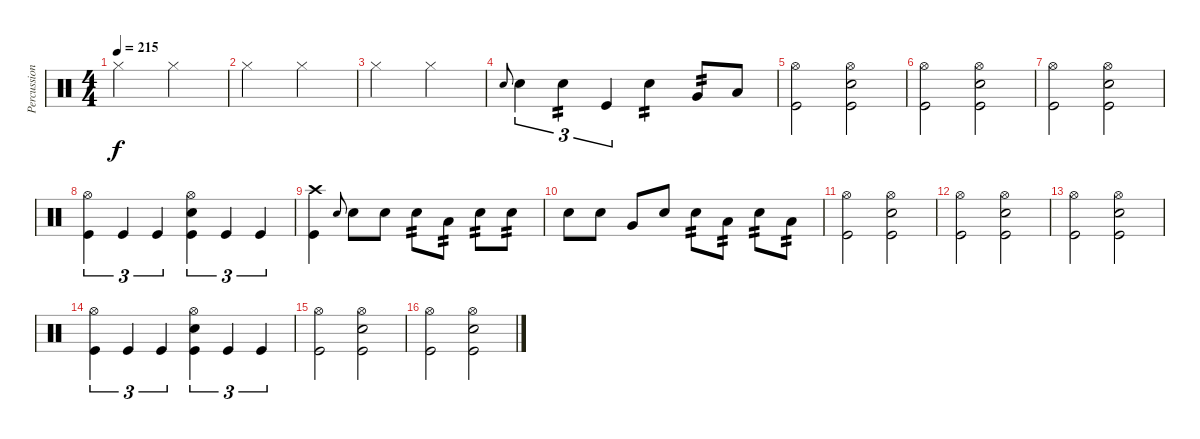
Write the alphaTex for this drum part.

\track ("Percussion" "Percussion") {instrument percussion}
\staff {score}
\articulation defaults
\ts (4 4)
\tempo 215
\clef neutral
\ks c "Hi-Hat (closed)".2{dy f} "Hi-Hat (closed)".2
|
"Hi-Hat (closed)".2 "Hi-Hat (closed)".2 |
"Hi-Hat (closed)".2 "Hi-Hat (closed)".2 |
"Electric Snare (hit)".8{gr onbeat} "Electric Snare (hit)".4{tu (3 2)} "Electric Snare (hit)".4{tu (3 2) tp 2} "Kick (hit)".4{tu (3 2)} "Electric Snare (hit)".4{tp 2} "Very Low Tom (hit)".8{tp 2} "Low Floor Tom (hit)".8 |
("Hi-Hat (open)" "Kick (hit)").2 ("Hi-Hat (open)" "Electric Snare (hit)" "Kick (hit)").2 |
("Hi-Hat (open)" "Kick (hit)").2 ("Hi-Hat (open)" "Electric Snare (hit)" "Kick (hit)").2 |
("Hi-Hat (open)" "Kick (hit)").2 ("Hi-Hat (open)" "Electric Snare (hit)" "Kick (hit)").2 |
("Hi-Hat (open)" "Kick (hit)").4{tu (3 2)} "Kick (hit)".4{tu (3 2)} "Kick (hit)".4{tu (3 2)} ("Hi-Hat (open)" "Electric Snare (hit)" "Kick (hit)").4{tu (3 2)} "Kick (hit)".4{tu (3 2)} "Kick (hit)".4{tu (3 2)} |
("Crash high (hit)" "Kick (hit)").4 "Electric Snare (hit)".8{gr onbeat} "Electric Snare (hit)".8 "Electric Snare (hit)".8 "Electric Snare (hit)".8{tp 2} "Low Tom (hit)".8{tp 2} "Electric Snare (hit)".8{tp 2} "Electric Snare (hit)".8{tp 2} |
"Electric Snare (hit)".8 "Electric Snare (hit)".8 "Very Low Tom (hit)".8 "Electric Snare (hit)".8 "Electric Snare (hit)".8{tp 2} "Low Tom (hit)".8{tp 2} "Electric Snare (hit)".8{tp 2} "Low Floor Tom (hit)".8{tp 2} |
("Hi-Hat (open)" "Kick (hit)").2 ("Hi-Hat (open)" "Electric Snare (hit)" "Kick (hit)").2 |
("Hi-Hat (open)" "Kick (hit)").2 ("Hi-Hat (open)" "Electric Snare (hit)" "Kick (hit)").2 |
("Hi-Hat (open)" "Kick (hit)").2 ("Hi-Hat (open)" "Electric Snare (hit)" "Kick (hit)").2 |
("Hi-Hat (open)" "Kick (hit)").4{tu (3 2)} "Kick (hit)".4{tu (3 2)} "Kick (hit)".4{tu (3 2)} ("Hi-Hat (open)" "Electric Snare (hit)" "Kick (hit)").4{tu (3 2)} "Kick (hit)".4{tu (3 2)} "Kick (hit)".4{tu (3 2)} |
("Hi-Hat (open)" "Kick (hit)").2 ("Hi-Hat (open)" "Electric Snare (hit)" "Kick (hit)").2 |
("Hi-Hat (open)" "Kick (hit)").2 ("Hi-Hat (open)" "Electric Snare (hit)" "Kick (hit)").2
